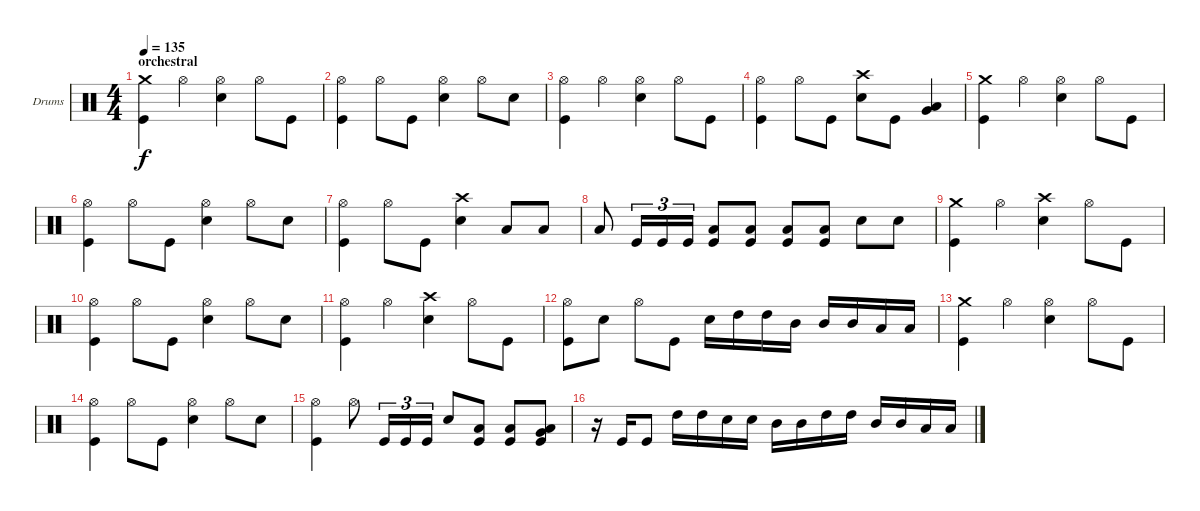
\defaultSystemsLayout 4
\bracketExtendMode groupsimilarinstruments
\firstSystemTrackNameOrientation horizontal
\otherSystemsTrackNameOrientation horizontal
\track ("Drumkit" "Drums") {instrument percussion}
\staff {score}
\articulation defaults
\ts (4 4)
\section ("" "orchestral")
\tempo 135
\clef neutral
\scale
0.5
\ks c
("Crash medium (hit)" "Kick (hit)").4{dy f} "Hi-Hat (open)".4 ("Hi-Hat (open)" "Snare (hit) 2").4 "Hi-Hat (open)".8 "Kick (hit)".8 |
\scale
0.5 ("Hi-Hat (open)" "Kick (hit)").4 "Hi-Hat (open)".8 "Kick (hit)".8 ("Hi-Hat (open)" "Snare (hit) 2").4 "Hi-Hat (open)".8 "Snare (hit) 2".8 |
\scale
0.5 ("Hi-Hat (open)" "Kick (hit)").4 "Hi-Hat (open)".4 ("Hi-Hat (open)" "Snare (hit) 2").4 "Hi-Hat (open)".8 "Kick (hit)".8 |
\scale
0.5 ("Hi-Hat (open)" "Kick (hit)").4 "Hi-Hat (open)".8 "Kick (hit)".8 ("Crash high (hit)" "Snare (hit) 2").8 "Kick (hit)".8 ("Very Low Tom (hit)" "Low Tom (hit)").4 |
\scale
0.5 ("Crash medium (hit)" "Kick (hit)").4 "Hi-Hat (open)".4 ("Hi-Hat (open)" "Snare (hit) 2").4 "Hi-Hat (open)".8 "Kick (hit)".8 |
\scale
0.5 ("Hi-Hat (open)" "Kick (hit)").4 "Hi-Hat (open)".8 "Kick (hit)".8 ("Hi-Hat (open)" "Snare (hit) 2").4 "Hi-Hat (open)".8 "Snare (hit) 2".8 |
\scale
0.5 ("Hi-Hat (open)" "Kick (hit)").4 "Hi-Hat (open)".8 "Kick (hit)".8 ("Crash high (hit)" "Snare (hit) 2").4 "Low Tom (hit)".8 "Low Tom (hit)".8 |
\scale
0.5 "Low Tom (hit)".8 "Kick (hit)".16{tu (3 2)} "Kick (hit)".16{tu (3 2)} "Kick (hit)".16{tu (3 2)} ("Low Tom (hit)" "Kick (hit)").8 ("Low Tom (hit)" "Kick (hit)").8 ("Low Tom (hit)" "Kick (hit)").8 ("Low Tom (hit)" "Kick (hit)").8 "Snare (hit) 2".8 "Snare (hit) 2".8 |
\scale
0.5 ("Crash medium (hit)" "Kick (hit)").4 "Hi-Hat (open)".4 ("Crash high (hit)" "Snare (hit) 2").4 "Hi-Hat (open)".8 "Kick (hit)".8 |
\scale
0.5 ("Hi-Hat (open)" "Kick (hit)").4 "Hi-Hat (open)".8 "Kick (hit)".8 ("Hi-Hat (open)" "Snare (hit) 2").4 "Hi-Hat (open)".8 "Snare (hit) 2".8 |
\scale
0.5 ("Hi-Hat (open)" "Kick (hit)").4 "Hi-Hat (open)".4 ("Crash high (hit)" "Snare (hit) 2").4 "Hi-Hat (open)".8 "Kick (hit)".8 |
\scale
0.5 ("Hi-Hat (open)" "Kick (hit)").8 "Snare (hit) 2".8 "Hi-Hat (open)".8 "Kick (hit)".8 "Snare (hit) 2".16 "High Tom (hit)".16 "High Tom (hit)".16 "Mid Tom (hit)".16 "Mid Tom (hit)".16 "Mid Tom (hit)".16 "Low Tom (hit)".16 "Low Tom (hit)".16 |
\scale
0.5 ("Crash medium (hit)" "Kick (hit)").4 "Hi-Hat (open)".4 ("Hi-Hat (open)" "Snare (hit) 2").4 "Hi-Hat (open)".8 "Kick (hit)".8 |
\scale
0.5 ("Hi-Hat (open)" "Kick (hit)").4 "Hi-Hat (open)".8 "Kick (hit)".8 ("Hi-Hat (open)" "Snare (hit) 2").4 "Hi-Hat (open)".8 "Snare (hit) 2".8 |
\scale
0.5 ("Hi-Hat (open)" "Kick (hit)").4 "Hi-Hat (open)".8 "Kick (hit)".16{tu (3 2)} "Kick (hit)".16{tu (3 2)} "Kick (hit)".16{tu (3 2)} "Snare (hit) 2".8 ("Low Tom (hit)" "Kick (hit)").8 ("Low Tom (hit)" "Kick (hit)").8 ("Very Low Tom (hit)" "Low Tom (hit)" "Kick (hit)").8 |
\scale
0.5 r.16 "Kick (hit)".16 "Kick (hit)".8 "High Tom (hit)".16 "High Tom (hit)".16 "Snare (hit) 2".16 "Snare (hit) 2".16 "Mid Tom (hit)".16 "Mid Tom (hit)".16 "High Tom (hit)".16 "High Tom (hit)".16 "Mid Tom (hit)".16 "Mid Tom (hit)".16 "Low Tom (hit)".16 "Low Tom (hit)".16
